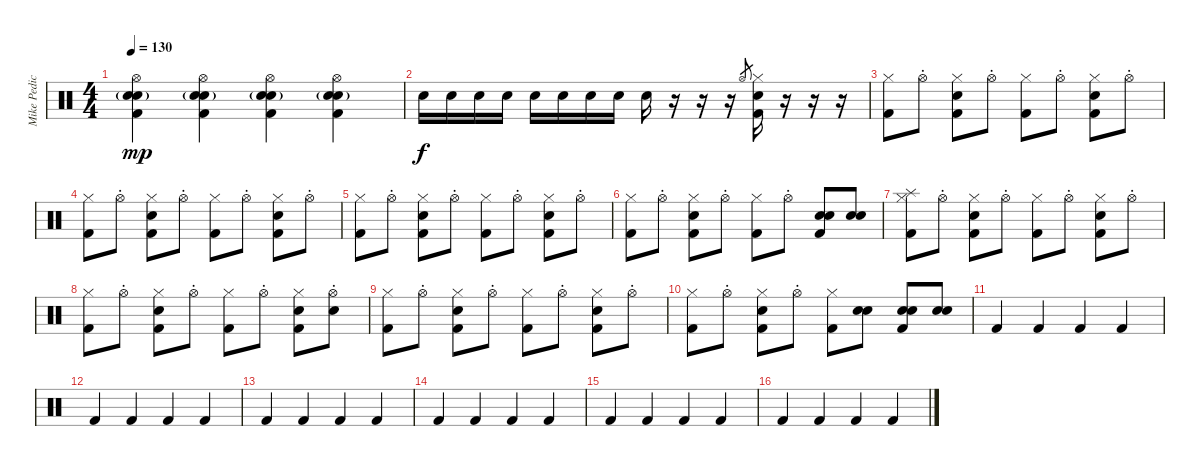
\track ("Mike Pedicone - Drum" "Mike Pedic") {instrument percussion}
\staff {score}
\articulation defaults
\ts (4 4)
\tempo 130
\clef neutral
\ks c
("Hi-Hat (open)" "Electric Snare (hit)" "Hand Clap (hit)"{g} "Kick (hit) 2").4{dy mp} ("Hi-Hat (open)" "Electric Snare (hit)" "Hand Clap (hit)"{g} "Kick (hit) 2").4 ("Hi-Hat (open)" "Electric Snare (hit)" "Hand Clap (hit)"{g} "Kick (hit) 2").4 ("Hi-Hat (open)" "Electric Snare (hit)" "Hand Clap (hit)"{g} "Kick (hit) 2").4 |
"Electric Snare (hit)".16{dy f} "Electric Snare (hit)".16 "Electric Snare (hit)".16 "Electric Snare (hit)".16 "Electric Snare (hit)".16 "Electric Snare (hit)".16 "Electric Snare (hit)".16 "Electric Snare (hit)".16 "Electric Snare (hit)".16 r.16 r.16 r.16 "Hi-Hat (open)".8{gr} ("Hi-Hat (closed)" "Electric Snare (hit)" "Kick (hit) 2").16 r.16 r.16 r.16 |
("Hi-Hat (closed)" "Kick (hit) 2").8 "Hi-Hat (open)"{st}.8 ("Hi-Hat (closed)" "Electric Snare (hit)" "Kick (hit) 2").8 "Hi-Hat (open)"{st}.8 ("Hi-Hat (closed)" "Kick (hit) 2").8 "Hi-Hat (open)"{st}.8 ("Hi-Hat (closed)" "Electric Snare (hit)" "Kick (hit) 2").8 "Hi-Hat (open)"{st}.8 |
("Hi-Hat (closed)" "Kick (hit) 2").8 "Hi-Hat (open)"{st}.8 ("Hi-Hat (closed)" "Electric Snare (hit)" "Kick (hit) 2").8 "Hi-Hat (open)"{st}.8 ("Hi-Hat (closed)" "Kick (hit) 2").8 "Hi-Hat (open)"{st}.8 ("Hi-Hat (closed)" "Electric Snare (hit)" "Kick (hit) 2").8 "Hi-Hat (open)"{st}.8 |
("Hi-Hat (closed)" "Kick (hit) 2").8 "Hi-Hat (open)"{st}.8 ("Hi-Hat (closed)" "Electric Snare (hit)" "Kick (hit) 2").8 "Hi-Hat (open)"{st}.8 ("Hi-Hat (closed)" "Kick (hit) 2").8 "Hi-Hat (open)"{st}.8 ("Hi-Hat (closed)" "Electric Snare (hit)" "Kick (hit) 2").8 "Hi-Hat (open)"{st}.8 |
("Hi-Hat (closed)" "Kick (hit) 2").8 "Hi-Hat (open)"{st}.8 ("Hi-Hat (closed)" "Electric Snare (hit)" "Kick (hit) 2").8 "Hi-Hat (open)"{st}.8 ("Hi-Hat (closed)" "Kick (hit) 2").8 "Hi-Hat (open)"{st}.8 ("Hand Clap (hit)" "Electric Snare (hit)" "Kick (hit) 2").8 ("Hand Clap (hit)" "Electric Snare (hit)").8 |
("Hi-Hat (closed)" "Splash (hit)" "Kick (hit) 2").8 "Hi-Hat (open)"{st}.8 ("Hi-Hat (closed)" "Electric Snare (hit)" "Kick (hit) 2").8 "Hi-Hat (open)"{st}.8 ("Hi-Hat (closed)" "Kick (hit) 2").8 "Hi-Hat (open)"{st}.8 ("Hi-Hat (closed)" "Electric Snare (hit)" "Kick (hit) 2").8 "Hi-Hat (open)"{st}.8 |
("Hi-Hat (closed)" "Kick (hit) 2").8 "Hi-Hat (open)"{st}.8 ("Hi-Hat (closed)" "Electric Snare (hit)" "Kick (hit) 2").8 "Hi-Hat (open)"{st}.8 ("Hi-Hat (closed)" "Kick (hit) 2").8 "Hi-Hat (open)"{st}.8 ("Hi-Hat (closed)" "Electric Snare (hit)" "Kick (hit) 2").8 ("Hi-Hat (open)"{st} "Electric Snare (hit)").8 |
("Hi-Hat (closed)" "Kick (hit) 2").8 "Hi-Hat (open)"{st}.8 ("Hi-Hat (closed)" "Electric Snare (hit)" "Kick (hit) 2").8 "Hi-Hat (open)"{st}.8 ("Hi-Hat (closed)" "Kick (hit) 2").8 "Hi-Hat (open)"{st}.8 ("Hi-Hat (closed)" "Electric Snare (hit)" "Kick (hit) 2").8 "Hi-Hat (open)"{st}.8 |
("Hi-Hat (closed)" "Kick (hit) 2").8 "Hi-Hat (open)"{st}.8 ("Hi-Hat (closed)" "Electric Snare (hit)" "Kick (hit) 2").8 "Hi-Hat (open)"{st}.8 ("Hi-Hat (closed)" "Kick (hit) 2").8 ("Hand Clap (hit)" "Electric Snare (hit)").8 ("Hand Clap (hit)" "Electric Snare (hit)" "Kick (hit) 2").8 ("Hand Clap (hit)" "Electric Snare (hit)").8 |
"Kick (hit) 2".4 "Kick (hit) 2".4 "Kick (hit) 2".4 "Kick (hit) 2".4 |
"Kick (hit) 2".4 "Kick (hit) 2".4 "Kick (hit) 2".4 "Kick (hit) 2".4 |
"Kick (hit) 2".4 "Kick (hit) 2".4 "Kick (hit) 2".4 "Kick (hit) 2".4 |
"Kick (hit) 2".4 "Kick (hit) 2".4 "Kick (hit) 2".4 "Kick (hit) 2".4 |
"Kick (hit) 2".4 "Kick (hit) 2".4 "Kick (hit) 2".4 "Kick (hit) 2".4 |
"Kick (hit) 2".4 "Kick (hit) 2".4 "Kick (hit) 2".4 "Kick (hit) 2".4
